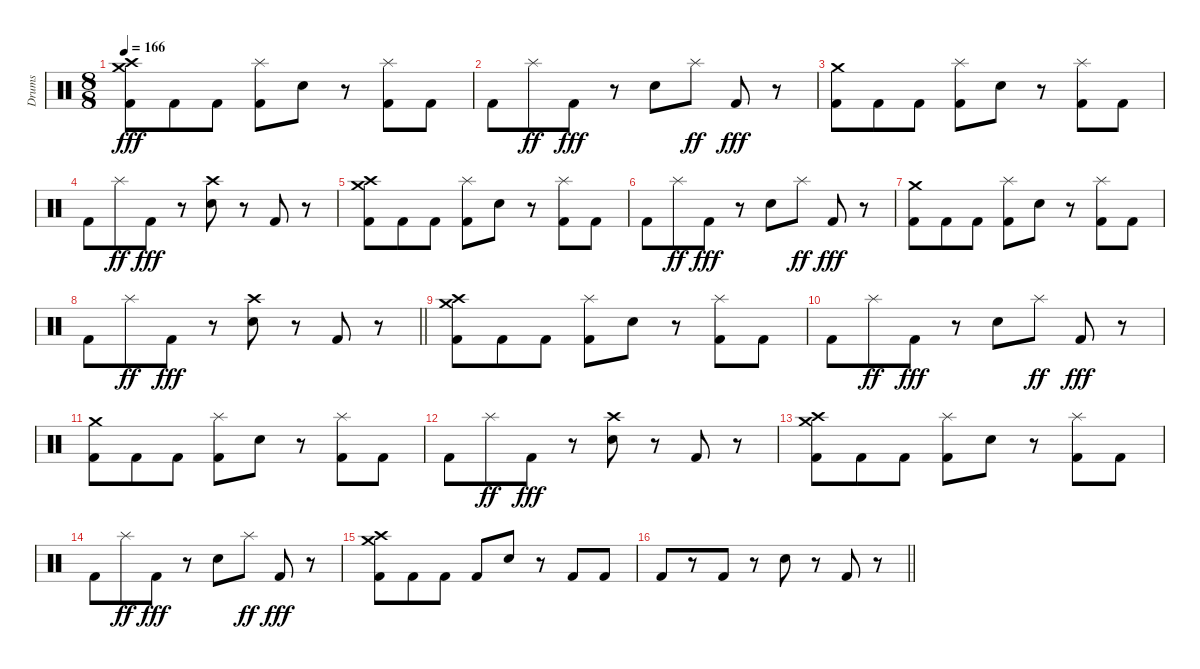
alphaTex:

\track ("Drums" "Drums") {instrument percussion}
\staff {score}
\articulation defaults
\ts (8 8)
\tempo 166
\clef neutral
\ks c
("Crash high (hit)" "Crash medium (hit)" "Kick (hit) 2").8{dy fff} "Kick (hit) 2".8 "Kick (hit) 2".8 ("Splash (hit)" "Kick (hit) 2").8 "Electric Snare (hit)".8 r.8 ("Splash (hit)" "Kick (hit) 2").8 "Kick (hit) 2".8 |
"Kick (hit) 2".8 "Splash (hit)".8{dy ff} "Kick (hit) 2".8{dy fff} r.8 "Electric Snare (hit)".8 "Splash (hit)".8{dy ff} "Kick (hit) 2".8{dy fff} r.8 |
("Crash medium (hit)" "Kick (hit) 2").8 "Kick (hit) 2".8 "Kick (hit) 2".8 ("Splash (hit)" "Kick (hit) 2").8 "Electric Snare (hit)".8 r.8 ("Splash (hit)" "Kick (hit) 2").8 "Kick (hit) 2".8 |
"Kick (hit) 2".8 "Splash (hit)".8{dy ff} "Kick (hit) 2".8{dy fff} r.8 ("Crash high (hit)" "Electric Snare (hit)").8 r.8 "Kick (hit) 2".8 r.8 |
("Crash high (hit)" "Crash medium (hit)" "Kick (hit) 2").8 "Kick (hit) 2".8 "Kick (hit) 2".8 ("Splash (hit)" "Kick (hit) 2").8 "Electric Snare (hit)".8 r.8 ("Splash (hit)" "Kick (hit) 2").8 "Kick (hit) 2".8 |
"Kick (hit) 2".8 "Splash (hit)".8{dy ff} "Kick (hit) 2".8{dy fff} r.8 "Electric Snare (hit)".8 "Splash (hit)".8{dy ff} "Kick (hit) 2".8{dy fff} r.8 |
("Crash medium (hit)" "Kick (hit) 2").8 "Kick (hit) 2".8 "Kick (hit) 2".8 ("Splash (hit)" "Kick (hit) 2").8 "Electric Snare (hit)".8 r.8 ("Splash (hit)" "Kick (hit) 2").8 "Kick (hit) 2".8 |
\barLineRight lightlight "Kick (hit) 2".8 "Splash (hit)".8{dy ff} "Kick (hit) 2".8{dy fff}
r.8 ("Crash high (hit)" "Electric Snare (hit)").8 r.8 "Kick (hit) 2".8 r.8 |
("Crash high (hit)" "Crash medium (hit)" "Kick (hit) 2").8 "Kick (hit) 2".8 "Kick (hit) 2".8 ("Splash (hit)" "Kick (hit) 2").8 "Electric Snare (hit)".8 r.8 ("Splash (hit)" "Kick (hit) 2").8 "Kick (hit) 2".8 |
"Kick (hit) 2".8 "Splash (hit)".8{dy ff} "Kick (hit) 2".8{dy fff} r.8 "Electric Snare (hit)".8 "Splash (hit)".8{dy ff} "Kick (hit) 2".8{dy fff} r.8 |
("Crash medium (hit)" "Kick (hit) 2").8 "Kick (hit) 2".8 "Kick (hit) 2".8 ("Splash (hit)" "Kick (hit) 2").8 "Electric Snare (hit)".8 r.8 ("Splash (hit)" "Kick (hit) 2").8 "Kick (hit) 2".8 |
"Kick (hit) 2".8 "Splash (hit)".8{dy ff} "Kick (hit) 2".8{dy fff} r.8 ("Crash high (hit)" "Electric Snare (hit)").8 r.8 "Kick (hit) 2".8 r.8 |
("Crash high (hit)" "Crash medium (hit)" "Kick (hit) 2").8 "Kick (hit) 2".8 "Kick (hit) 2".8 ("Splash (hit)" "Kick (hit) 2").8 "Electric Snare (hit)".8 r.8 ("Splash (hit)" "Kick (hit) 2").8 "Kick (hit) 2".8 |
"Kick (hit) 2".8 "Splash (hit)".8{dy ff} "Kick (hit) 2".8{dy fff} r.8 "Electric Snare (hit)".8 "Splash (hit)".8{dy ff} "Kick (hit) 2".8{dy fff} r.8 |
("Crash high (hit)" "Crash medium (hit)" "Kick (hit) 2").8 "Kick (hit) 2".8 "Kick (hit) 2".8 "Kick (hit) 2".8 "Electric Snare (hit)".8 r.8 "Kick (hit) 2".8 "Kick (hit) 2".8 |
\barLineRight lightlight "Kick (hit) 2".8
r.8 "Kick (hit) 2".8 r.8 "Electric Snare (hit)".8 r.8 "Kick (hit) 2".8 r.8
